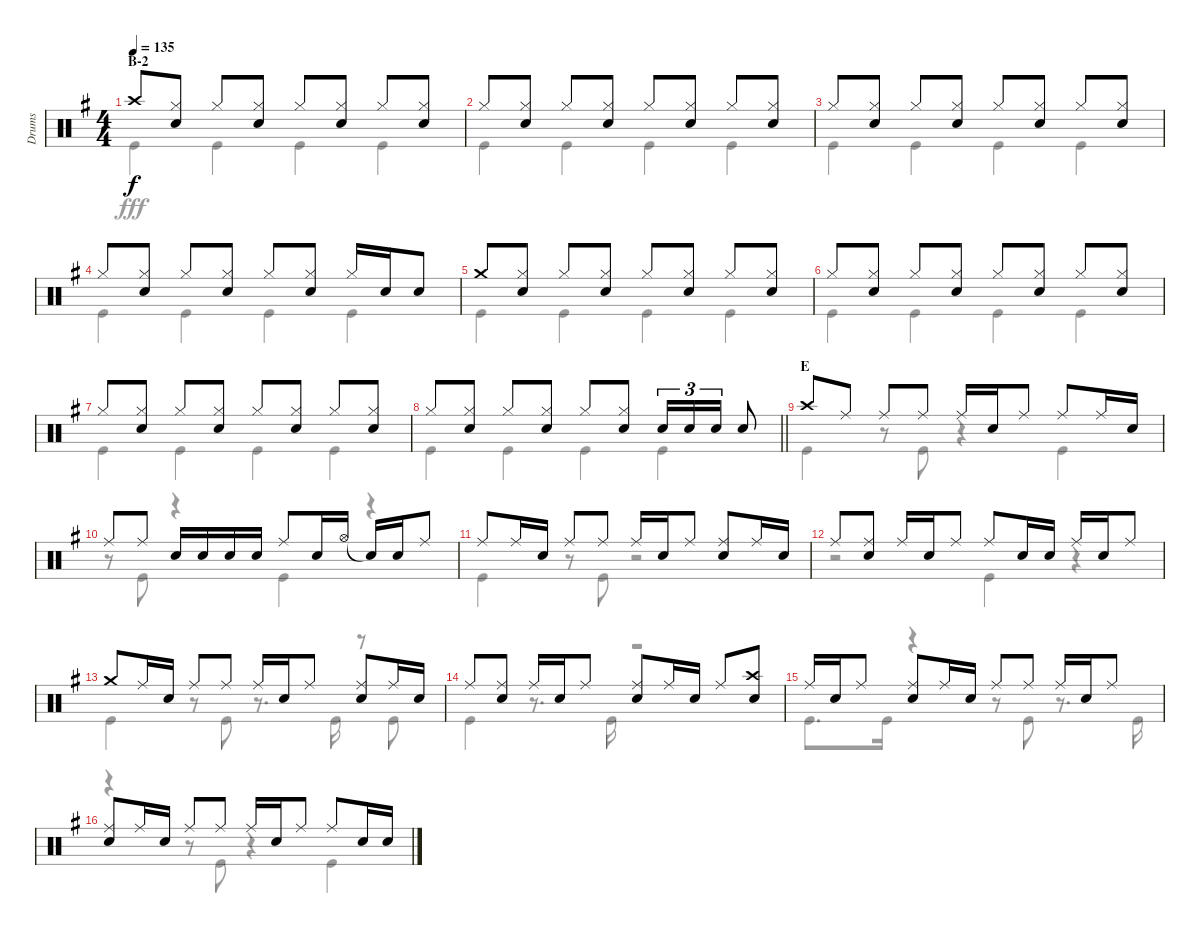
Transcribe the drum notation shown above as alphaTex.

\track ("Drums" "Drums") {instrument percussion}
\staff {score}
\articulation defaults
\voice
\ts (4 4)
\section ("" "B-2")
\tempo 135
\clef neutral
\ks g "Crash high (hit)".8{dy f}
("Hi-Hat (closed)" "Snare (hit) 2").8 "Hi-Hat (closed)".8 ("Hi-Hat (closed)" "Snare (hit) 2").8 "Hi-Hat (closed)".8 ("Hi-Hat (closed)" "Snare (hit) 2").8 "Hi-Hat (closed)".8 ("Hi-Hat (closed)" "Snare (hit) 2").8 |
"Hi-Hat (closed)".8 ("Hi-Hat (closed)" "Snare (hit) 2").8 "Hi-Hat (closed)".8 ("Hi-Hat (closed)" "Snare (hit) 2").8 "Hi-Hat (closed)".8 ("Hi-Hat (closed)" "Snare (hit) 2").8 "Hi-Hat (closed)".8 ("Hi-Hat (closed)" "Snare (hit) 2").8 |
"Hi-Hat (closed)".8 ("Hi-Hat (closed)" "Snare (hit) 2").8 "Hi-Hat (closed)".8 ("Hi-Hat (closed)" "Snare (hit) 2").8 "Hi-Hat (closed)".8 ("Hi-Hat (closed)" "Snare (hit) 2").8 "Hi-Hat (closed)".8 ("Hi-Hat (closed)" "Snare (hit) 2").8 |
"Hi-Hat (closed)".8 ("Hi-Hat (closed)" "Snare (hit) 2").8 "Hi-Hat (closed)".8 ("Hi-Hat (closed)" "Snare (hit) 2").8 "Hi-Hat (closed)".8 ("Hi-Hat (closed)" "Snare (hit) 2").8 "Hi-Hat (closed)".16 "Snare (hit) 2".16 "Snare (hit) 2".8 |
"Crash medium (hit)".8 ("Hi-Hat (closed)" "Snare (hit) 2").8 "Hi-Hat (closed)".8 ("Hi-Hat (closed)" "Snare (hit) 2").8 "Hi-Hat (closed)".8 ("Hi-Hat (closed)" "Snare (hit) 2").8 "Hi-Hat (closed)".8 ("Hi-Hat (closed)" "Snare (hit) 2").8 |
"Hi-Hat (closed)".8 ("Hi-Hat (closed)" "Snare (hit) 2").8 "Hi-Hat (closed)".8 ("Hi-Hat (closed)" "Snare (hit) 2").8 "Hi-Hat (closed)".8 ("Hi-Hat (closed)" "Snare (hit) 2").8 "Hi-Hat (closed)".8 ("Hi-Hat (closed)" "Snare (hit) 2").8 |
"Hi-Hat (closed)".8 ("Hi-Hat (closed)" "Snare (hit) 2").8 "Hi-Hat (closed)".8 ("Hi-Hat (closed)" "Snare (hit) 2").8 "Hi-Hat (closed)".8 ("Hi-Hat (closed)" "Snare (hit) 2").8 "Hi-Hat (closed)".8 ("Hi-Hat (closed)" "Snare (hit) 2").8 |
\barLineRight lightlight "Hi-Hat (closed)".8
("Hi-Hat (closed)" "Snare (hit) 2").8 "Hi-Hat (closed)".8 ("Hi-Hat (closed)" "Snare (hit) 2").8 "Hi-Hat (closed)".8 ("Hi-Hat (closed)" "Snare (hit) 2").8 "Snare (hit) 2".16{tu (3 2)} "Snare (hit) 2".16{tu (3 2)} "Snare (hit) 2".16{tu (3 2)} "Snare (hit) 2".8 |
\section ("" "E")
"Crash high (hit)".8 "Ride (middle)".8 "Ride (middle)".8 "Ride (middle)".8 "Ride (middle)".16 "Snare (hit) 2".16 "Ride (middle)".8 "Ride (middle)".8 "Ride (middle)".16 "Snare (hit) 2".16 |
"Ride (middle)".8 "Ride (middle)".8 "Snare (hit) 2".16 "Snare (hit) 2".16 "Snare (hit) 2".16 "Snare (hit) 2".16 "Ride (middle)".8 "Snare (hit) 2".16 "Hi-Hat (open)".16 "Snare (hit)"{t}.16 "Snare (hit) 2".16 "Ride (middle)".8 |
"Ride (middle)".8 "Ride (middle)".16 "Snare (hit) 2".16 "Ride (middle)".8 "Ride (middle)".8 "Ride (middle)".16 "Snare (hit) 2".16 "Ride (middle)".8 ("Ride (middle)" "Snare (hit) 2").8 "Ride (middle)".16 "Snare (hit) 2".16 |
"Ride (middle)".8 ("Ride (middle)" "Snare (hit) 2").8 "Ride (middle)".16 "Snare (hit) 2".16 "Ride (middle)".8 "Ride (middle)".8 "Snare (hit) 2".16 "Snare (hit) 2".16 "Ride (middle)".16 "Snare (hit) 2".16 "Ride (middle)".8 |
"Crash medium (hit)".8 "Ride (middle)".16 "Snare (hit) 2".16 "Ride (middle)".8 "Ride (middle)".8 "Ride (middle)".16 "Snare (hit) 2".16 "Ride (middle)".8 ("Ride (middle)" "Snare (hit) 2").8 "Ride (middle)".16 "Snare (hit) 2".16 |
"Ride (middle)".8 ("Ride (middle)" "Snare (hit) 2").8 "Ride (middle)".16 "Snare (hit) 2".16 "Ride (middle)".8 ("Ride (middle)" "Snare (hit) 2").8 "Ride (middle)".16 "Snare (hit) 2".16 "Ride (middle)".8 ("Crash high (hit)" "Snare (hit) 2").8 |
"Ride (middle)".16 "Snare (hit) 2".16 "Ride (middle)".8 ("Ride (middle)" "Snare (hit) 2").8 "Ride (middle)".16 "Snare (hit) 2".16 "Ride (middle)".8 "Ride (middle)".8 "Ride (middle)".16 "Snare (hit) 2".16 "Ride (middle)".8 |
("Ride (middle)" "Snare (hit) 2").8 "Ride (middle)".16 "Snare (hit) 2".16 "Ride (middle)".8 "Ride (middle)".8 "Ride (middle)".16 "Snare (hit) 2".16 "Ride (middle)".8 "Ride (middle)".8 "Snare (hit) 2".16 "Snare (hit) 2".16
\voice
\clef neutral
\ottava regular
\simile none
\ks g "Kick (hit)".4{dy fff} "Kick (hit)".4 "Kick (hit)".4 "Kick (hit)".4
|
"Kick (hit)".4 "Kick (hit)".4 "Kick (hit)".4 "Kick (hit)".4 |
"Kick (hit)".4 "Kick (hit)".4 "Kick (hit)".4 "Kick (hit)".4 |
"Kick (hit)".4 "Kick (hit)".4 "Kick (hit)".4 "Kick (hit)".4 |
"Kick (hit)".4 "Kick (hit)".4 "Kick (hit)".4 "Kick (hit)".4 |
"Kick (hit)".4 "Kick (hit)".4 "Kick (hit)".4 "Kick (hit)".4 |
"Kick (hit)".4 "Kick (hit)".4 "Kick (hit)".4 "Kick (hit)".4 |
\barLineRight lightlight "Kick (hit)".4 "Kick (hit)".4 "Kick (hit)".4 "Kick (hit)".4
|
"Kick (hit)".4 r.8 "Kick (hit)".8 r.4 "Kick (hit)".4 |
r.8 "Kick (hit)".8 r.4 "Kick (hit)".4 r.4 |
"Kick (hit)".4 r.8 "Kick (hit)".8 r.2 |
r.2 "Kick (hit)".4 r.4 |
"Kick (hit)".4 r.8 "Kick (hit)".8 r.8{d} "Kick (hit)".16 r.8 "Kick (hit)".8 |
"Kick (hit)".4 r.8{d} "Kick (hit)".16 r.2 |
"Kick (hit)".8{d} "Kick (hit)".16 r.4 r.8 "Kick (hit)".8 r.8{d} "Kick (hit)".16 |
r.4 r.8 "Kick (hit)".8 r.4 "Kick (hit)".4
